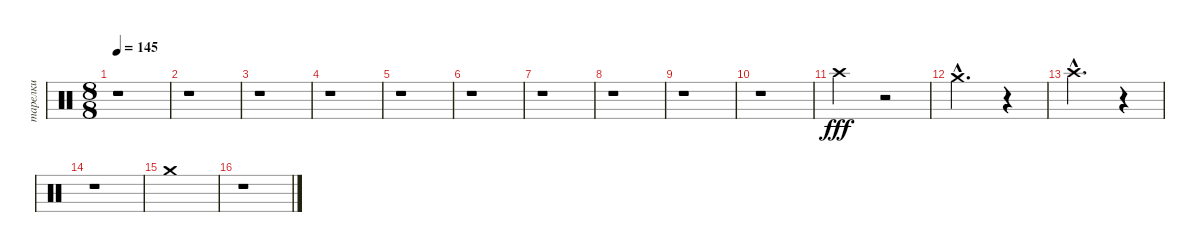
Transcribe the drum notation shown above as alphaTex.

\track ("тарелки" "тарелки") {instrument percussion}
\staff {score}
\articulation defaults
\ts (8 8)
\tempo 145
\clef neutral
\ks c
r.1{dy f} |
r.1 |
r.1 |
r.1 |
r.1 |
r.1 |
r.1 |
r.1 |
r.1 |
r.1 |
"Crash high (hit)".2{dy fff} r.2 |
"Crash medium (hit)"{hac}.2{d} r.4 |
"Crash high (hit)"{hac}.2{d} r.4 |
r.1 |
"Crash medium (hit)".1 |
r.1
